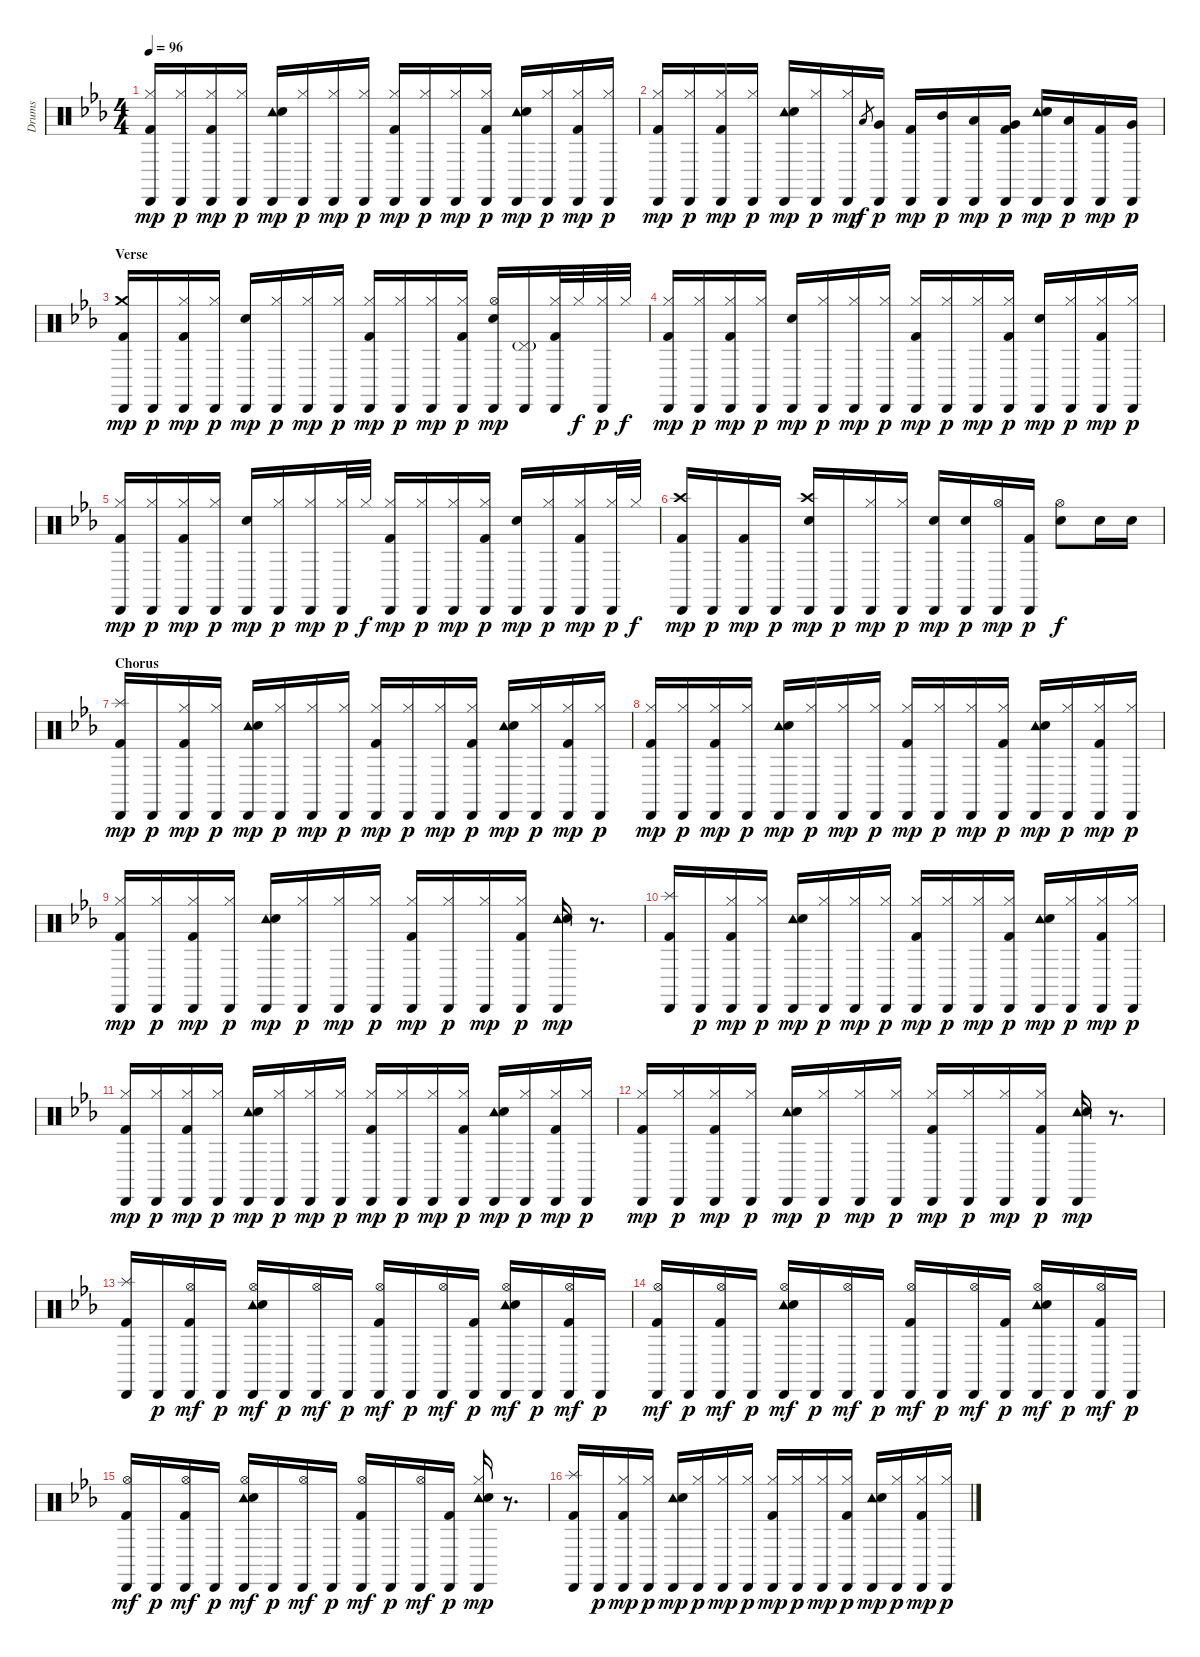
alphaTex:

\track ("Drums" "Drums") {instrument percussion}
\staff {score}
\articulation defaults
\ts (4 4)
\tempo 96
\clef neutral
\ks eb
("Kick (hit) 2" "Cabasa (hit)" "Hi-Hat (closed)").16{dy mp} ("Cabasa (hit)" "Hi-Hat (closed)").16{dy p} ("Kick (hit) 2" "Cabasa (hit)" "Hi-Hat (closed)").16{dy mp} ("Cabasa (hit)" "Hi-Hat (closed)").16{dy p} ("Tambourine (hit)" "Cabasa (hit)" "Snare (hit) 2").16{dy mp} ("Cabasa (hit)" "Hi-Hat (closed)").16{dy p} ("Cabasa (hit)" "Hi-Hat (closed)").16{dy mp} ("Cabasa (hit)" "Hi-Hat (closed)").16{dy p} ("Kick (hit) 2" "Cabasa (hit)" "Hi-Hat (closed)").16{dy mp} ("Cabasa (hit)" "Hi-Hat (closed)").16{dy p} ("Cabasa (hit)" "Hi-Hat (closed)").16{dy mp} ("Kick (hit) 2" "Cabasa (hit)" "Hi-Hat (closed)").16{dy p} ("Tambourine (hit)" "Cabasa (hit)" "Snare (hit) 2").16{dy mp} ("Cabasa (hit)" "Hi-Hat (closed)").16{dy p} ("Kick (hit) 2" "Cabasa (hit)" "Hi-Hat (closed)").16{dy mp} ("Cabasa (hit)" "Hi-Hat (closed)").16{dy p} |
("Kick (hit) 2" "Cabasa (hit)" "Hi-Hat (closed)").16{dy mp} ("Cabasa (hit)" "Hi-Hat (closed)").16{dy p} ("Kick (hit) 2" "Cabasa (hit)" "Hi-Hat (closed)").16{dy mp} ("Cabasa (hit)" "Hi-Hat (closed)").16{dy p} ("Tambourine (hit)" "Cabasa (hit)" "Snare (hit) 2").16{dy mp} ("Cabasa (hit)" "Hi-Hat (closed)").16{dy p} ("Cabasa (hit)" "Hi-Hat (closed)").16{dy mp} "Low Tom (hit)".8{gr dy f} ("Cabasa (hit)" "Very Low Tom (hit)").16{dy p} ("Kick (hit) 2" "Cabasa (hit)").16{dy mp} ("Cabasa (hit)" "Mid Tom (hit)").16{dy p} ("Cabasa (hit)" "Low Tom (hit)").16{dy mp} ("Kick (hit) 2" "Cabasa (hit)" "Very Low Tom (hit)").16{dy p} ("Tambourine (hit)" "Cabasa (hit)" "Snare (hit) 2").16{dy mp} ("Cabasa (hit)" "Low Tom (hit)").16{dy p} ("Kick (hit) 2" "Cabasa (hit)").16{dy mp} ("Cabasa (hit)" "Very Low Tom (hit)").16{dy p} |
\section ("" "Verse")
("Kick (hit) 2" "Crash medium (hit)" "Cabasa (hit)").16{dy mp} "Cabasa (hit)".16{dy p} ("Kick (hit) 2" "Cabasa (hit)" "Hi-Hat (closed)").16{dy mp} ("Cabasa (hit)" "Hi-Hat (closed)").16{dy p} ("Cabasa (hit)" "Snare (hit) 2").16{dy mp} ("Cabasa (hit)" "Hi-Hat (closed)").16{dy p} ("Cabasa (hit)" "Hi-Hat (closed)").16{dy mp} ("Cabasa (hit)" "Hi-Hat (closed)").16{dy p} ("Kick (hit) 2" "Cabasa (hit)" "Hi-Hat (closed)").16{dy mp} ("Cabasa (hit)" "Hi-Hat (closed)").16{dy p} ("Cabasa (hit)" "Hi-Hat (closed)").16{dy mp} ("Kick (hit) 2" "Cabasa (hit)" "Hi-Hat (closed)").16{dy p} ("Cabasa (hit)" "Snare (hit) 2" "Hi-Hat (open)").16{dy mp} ("Cabasa (hit)" "Pedal Hi-Hat (hit)"{g}).16 ("Kick (hit) 2" "Cabasa (hit)" "Hi-Hat (closed)").32 "Hi-Hat (closed)".32{dy f} ("Cabasa (hit)" "Hi-Hat (closed)").32{dy p} "Hi-Hat (closed)".32{dy f} |
("Kick (hit) 2" "Cabasa (hit)" "Hi-Hat (closed)").16{dy mp} ("Cabasa (hit)" "Hi-Hat (closed)").16{dy p} ("Kick (hit) 2" "Cabasa (hit)" "Hi-Hat (closed)").16{dy mp} ("Cabasa (hit)" "Hi-Hat (closed)").16{dy p} ("Cabasa (hit)" "Snare (hit) 2").16{dy mp} ("Cabasa (hit)" "Hi-Hat (closed)").16{dy p} ("Cabasa (hit)" "Hi-Hat (closed)").16{dy mp} ("Cabasa (hit)" "Hi-Hat (closed)").16{dy p} ("Kick (hit) 2" "Cabasa (hit)" "Hi-Hat (closed)").16{dy mp} ("Cabasa (hit)" "Hi-Hat (closed)").16{dy p} ("Cabasa (hit)" "Hi-Hat (closed)").16{dy mp} ("Kick (hit) 2" "Cabasa (hit)" "Hi-Hat (closed)").16{dy p} ("Cabasa (hit)" "Snare (hit) 2").16{dy mp} ("Cabasa (hit)" "Hi-Hat (closed)").16{dy p} ("Kick (hit) 2" "Cabasa (hit)" "Hi-Hat (closed)").16{dy mp} ("Cabasa (hit)" "Hi-Hat (closed)").16{dy p} |
("Kick (hit) 2" "Cabasa (hit)" "Hi-Hat (closed)").16{dy mp} ("Cabasa (hit)" "Hi-Hat (closed)").16{dy p} ("Kick (hit) 2" "Cabasa (hit)" "Hi-Hat (closed)").16{dy mp} ("Cabasa (hit)" "Hi-Hat (closed)").16{dy p} ("Cabasa (hit)" "Snare (hit) 2").16{dy mp} ("Cabasa (hit)" "Hi-Hat (closed)").16{dy p} ("Cabasa (hit)" "Hi-Hat (closed)").16{dy mp} ("Cabasa (hit)" "Hi-Hat (closed)").32{dy p} "Hi-Hat (closed)".32{dy f} ("Kick (hit) 2" "Cabasa (hit)" "Hi-Hat (closed)").16{dy mp} ("Cabasa (hit)" "Hi-Hat (closed)").16{dy p} ("Cabasa (hit)" "Hi-Hat (closed)").16{dy mp} ("Kick (hit) 2" "Cabasa (hit)" "Hi-Hat (closed)").16{dy p} ("Cabasa (hit)" "Snare (hit) 2").16{dy mp} ("Cabasa (hit)" "Hi-Hat (closed)").16{dy p} ("Kick (hit) 2" "Cabasa (hit)" "Hi-Hat (closed)").16{dy mp} ("Cabasa (hit)" "Hi-Hat (closed)").32{dy p} "Hi-Hat (closed)".32{dy f} |
("Kick (hit) 2" "Crash high (hit)" "Cabasa (hit)").16{dy mp} "Cabasa (hit)".16{dy p} ("Kick (hit) 2" "Cabasa (hit)").16{dy mp} "Cabasa (hit)".16{dy p} ("Crash high (hit)" "Cabasa (hit)" "Snare (hit) 2").16{dy mp} "Cabasa (hit)".16{dy p} ("Cabasa (hit)" "Hi-Hat (closed)").16{dy mp} ("Cabasa (hit)" "Hi-Hat (closed)").16{dy p} ("Cabasa (hit)" "Snare (hit) 2").16{dy mp} ("Cabasa (hit)" "Snare (hit) 2").16{dy p} ("Cabasa (hit)" "Hi-Hat (open)").16{dy mp} ("Kick (hit) 2" "Cabasa (hit)").16{dy p} ("Snare (hit) 2" "Hi-Hat (open)").8{dy f} "Snare (hit) 2".16 "Snare (hit) 2".16 |
\section ("" "Chorus")
("Kick (hit) 2" "Splash (hit)" "Cabasa (hit)").16{dy mp} "Cabasa (hit)".16{dy p} ("Kick (hit) 2" "Cabasa (hit)" "Hi-Hat (closed)").16{dy mp} ("Cabasa (hit)" "Hi-Hat (closed)").16{dy p} ("Tambourine (hit)" "Cabasa (hit)" "Snare (hit) 2").16{dy mp} ("Cabasa (hit)" "Hi-Hat (closed)").16{dy p} ("Cabasa (hit)" "Hi-Hat (closed)").16{dy mp} ("Cabasa (hit)" "Hi-Hat (closed)").16{dy p} ("Kick (hit) 2" "Cabasa (hit)" "Hi-Hat (closed)").16{dy mp} ("Cabasa (hit)" "Hi-Hat (closed)").16{dy p} ("Cabasa (hit)" "Hi-Hat (closed)").16{dy mp} ("Kick (hit) 2" "Cabasa (hit)" "Hi-Hat (closed)").16{dy p} ("Tambourine (hit)" "Cabasa (hit)" "Snare (hit) 2").16{dy mp} ("Cabasa (hit)" "Hi-Hat (closed)").16{dy p} ("Kick (hit) 2" "Cabasa (hit)" "Hi-Hat (closed)").16{dy mp} ("Cabasa (hit)" "Hi-Hat (closed)").16{dy p} |
("Kick (hit) 2" "Cabasa (hit)" "Hi-Hat (closed)").16{dy mp} ("Cabasa (hit)" "Hi-Hat (closed)").16{dy p} ("Kick (hit) 2" "Cabasa (hit)" "Hi-Hat (closed)").16{dy mp} ("Cabasa (hit)" "Hi-Hat (closed)").16{dy p} ("Tambourine (hit)" "Cabasa (hit)" "Snare (hit) 2").16{dy mp} ("Cabasa (hit)" "Hi-Hat (closed)").16{dy p} ("Cabasa (hit)" "Hi-Hat (closed)").16{dy mp} ("Cabasa (hit)" "Hi-Hat (closed)").16{dy p} ("Kick (hit) 2" "Cabasa (hit)" "Hi-Hat (closed)").16{dy mp} ("Cabasa (hit)" "Hi-Hat (closed)").16{dy p} ("Cabasa (hit)" "Hi-Hat (closed)").16{dy mp} ("Kick (hit) 2" "Cabasa (hit)" "Hi-Hat (closed)").16{dy p} ("Tambourine (hit)" "Cabasa (hit)" "Snare (hit) 2").16{dy mp} ("Cabasa (hit)" "Hi-Hat (closed)").16{dy p} ("Kick (hit) 2" "Cabasa (hit)" "Hi-Hat (closed)").16{dy mp} ("Cabasa (hit)" "Hi-Hat (closed)").16{dy p} |
("Kick (hit) 2" "Cabasa (hit)" "Hi-Hat (closed)").16{dy mp} ("Cabasa (hit)" "Hi-Hat (closed)").16{dy p} ("Kick (hit) 2" "Cabasa (hit)" "Hi-Hat (closed)").16{dy mp} ("Cabasa (hit)" "Hi-Hat (closed)").16{dy p} ("Tambourine (hit)" "Cabasa (hit)" "Snare (hit) 2").16{dy mp} ("Cabasa (hit)" "Hi-Hat (closed)").16{dy p} ("Cabasa (hit)" "Hi-Hat (closed)").16{dy mp} ("Cabasa (hit)" "Hi-Hat (closed)").16{dy p} ("Kick (hit) 2" "Cabasa (hit)" "Hi-Hat (closed)").16{dy mp} ("Cabasa (hit)" "Hi-Hat (closed)").16{dy p} ("Cabasa (hit)" "Hi-Hat (closed)").16{dy mp} ("Kick (hit) 2" "Cabasa (hit)" "Hi-Hat (closed)").16{dy p} ("Tambourine (hit)" "Cabasa (hit)" "Snare (hit) 2").16{dy mp} r.8{d} |
("Kick (hit) 2" "Splash (hit)" "Cabasa (hit)").16 "Cabasa (hit)".16{dy p} ("Kick (hit) 2" "Cabasa (hit)" "Hi-Hat (closed)").16{dy mp} ("Cabasa (hit)" "Hi-Hat (closed)").16{dy p} ("Tambourine (hit)" "Cabasa (hit)" "Snare (hit) 2").16{dy mp} ("Cabasa (hit)" "Hi-Hat (closed)").16{dy p} ("Cabasa (hit)" "Hi-Hat (closed)").16{dy mp} ("Cabasa (hit)" "Hi-Hat (closed)").16{dy p} ("Kick (hit) 2" "Cabasa (hit)" "Hi-Hat (closed)").16{dy mp} ("Cabasa (hit)" "Hi-Hat (closed)").16{dy p} ("Cabasa (hit)" "Hi-Hat (closed)").16{dy mp} ("Kick (hit) 2" "Cabasa (hit)" "Hi-Hat (closed)").16{dy p} ("Tambourine (hit)" "Cabasa (hit)" "Snare (hit) 2").16{dy mp} ("Cabasa (hit)" "Hi-Hat (closed)").16{dy p} ("Kick (hit) 2" "Cabasa (hit)" "Hi-Hat (closed)").16{dy mp} ("Cabasa (hit)" "Hi-Hat (closed)").16{dy p} |
("Kick (hit) 2" "Cabasa (hit)" "Hi-Hat (closed)").16{dy mp} ("Cabasa (hit)" "Hi-Hat (closed)").16{dy p} ("Kick (hit) 2" "Cabasa (hit)" "Hi-Hat (closed)").16{dy mp} ("Cabasa (hit)" "Hi-Hat (closed)").16{dy p} ("Tambourine (hit)" "Cabasa (hit)" "Snare (hit) 2").16{dy mp} ("Cabasa (hit)" "Hi-Hat (closed)").16{dy p} ("Cabasa (hit)" "Hi-Hat (closed)").16{dy mp} ("Cabasa (hit)" "Hi-Hat (closed)").16{dy p} ("Kick (hit) 2" "Cabasa (hit)" "Hi-Hat (closed)").16{dy mp} ("Cabasa (hit)" "Hi-Hat (closed)").16{dy p} ("Cabasa (hit)" "Hi-Hat (closed)").16{dy mp} ("Kick (hit) 2" "Cabasa (hit)" "Hi-Hat (closed)").16{dy p} ("Tambourine (hit)" "Cabasa (hit)" "Snare (hit) 2").16{dy mp} ("Cabasa (hit)" "Hi-Hat (closed)").16{dy p} ("Kick (hit) 2" "Cabasa (hit)" "Hi-Hat (closed)").16{dy mp} ("Cabasa (hit)" "Hi-Hat (closed)").16{dy p} |
("Kick (hit) 2" "Cabasa (hit)" "Hi-Hat (closed)").16{dy mp} ("Cabasa (hit)" "Hi-Hat (closed)").16{dy p} ("Kick (hit) 2" "Cabasa (hit)" "Hi-Hat (closed)").16{dy mp} ("Cabasa (hit)" "Hi-Hat (closed)").16{dy p} ("Tambourine (hit)" "Cabasa (hit)" "Snare (hit) 2").16{dy mp} ("Cabasa (hit)" "Hi-Hat (closed)").16{dy p} ("Cabasa (hit)" "Hi-Hat (closed)").16{dy mp} ("Cabasa (hit)" "Hi-Hat (closed)").16{dy p} ("Kick (hit) 2" "Cabasa (hit)" "Hi-Hat (closed)").16{dy mp} ("Cabasa (hit)" "Hi-Hat (closed)").16{dy p} ("Cabasa (hit)" "Hi-Hat (closed)").16{dy mp} ("Kick (hit) 2" "Cabasa (hit)" "Hi-Hat (closed)").16{dy p} ("Tambourine (hit)" "Cabasa (hit)" "Snare (hit) 2").16{dy mp} r.8{d} |
("Kick (hit) 2" "Splash (hit)" "Cabasa (hit)").16 "Cabasa (hit)".16{dy p} ("Kick (hit) 2" "Cabasa (hit)" "Hi-Hat (open)").16{dy mf} "Cabasa (hit)".16{dy p} ("Tambourine (hit)" "Cabasa (hit)" "Snare (hit) 2" "Hi-Hat (open)").16{dy mf} "Cabasa (hit)".16{dy p} ("Cabasa (hit)" "Hi-Hat (open)").16{dy mf} "Cabasa (hit)".16{dy p} ("Kick (hit) 2" "Cabasa (hit)" "Hi-Hat (open)").16{dy mf} "Cabasa (hit)".16{dy p} ("Cabasa (hit)" "Hi-Hat (open)").16{dy mf} ("Kick (hit) 2" "Cabasa (hit)").16{dy p} ("Tambourine (hit)" "Cabasa (hit)" "Snare (hit) 2" "Hi-Hat (open)").16{dy mf} "Cabasa (hit)".16{dy p} ("Kick (hit) 2" "Cabasa (hit)" "Hi-Hat (open)").16{dy mf} "Cabasa (hit)".16{dy p} |
("Kick (hit) 2" "Cabasa (hit)" "Hi-Hat (open)").16{dy mf} "Cabasa (hit)".16{dy p} ("Kick (hit) 2" "Cabasa (hit)" "Hi-Hat (open)").16{dy mf} "Cabasa (hit)".16{dy p} ("Tambourine (hit)" "Cabasa (hit)" "Snare (hit) 2" "Hi-Hat (open)").16{dy mf} "Cabasa (hit)".16{dy p} ("Cabasa (hit)" "Hi-Hat (open)").16{dy mf} "Cabasa (hit)".16{dy p} ("Kick (hit) 2" "Cabasa (hit)" "Hi-Hat (open)").16{dy mf} "Cabasa (hit)".16{dy p} ("Cabasa (hit)" "Hi-Hat (open)").16{dy mf} ("Kick (hit) 2" "Cabasa (hit)").16{dy p} ("Tambourine (hit)" "Cabasa (hit)" "Snare (hit) 2" "Hi-Hat (open)").16{dy mf} "Cabasa (hit)".16{dy p} ("Kick (hit) 2" "Cabasa (hit)" "Hi-Hat (open)").16{dy mf} "Cabasa (hit)".16{dy p} |
("Kick (hit) 2" "Cabasa (hit)" "Hi-Hat (open)").16{dy mf} "Cabasa (hit)".16{dy p} ("Kick (hit) 2" "Cabasa (hit)" "Hi-Hat (open)").16{dy mf} "Cabasa (hit)".16{dy p} ("Tambourine (hit)" "Cabasa (hit)" "Snare (hit) 2" "Hi-Hat (open)").16{dy mf} "Cabasa (hit)".16{dy p} ("Cabasa (hit)" "Hi-Hat (open)").16{dy mf} "Cabasa (hit)".16{dy p} ("Kick (hit) 2" "Cabasa (hit)" "Hi-Hat (open)").16{dy mf} "Cabasa (hit)".16{dy p} ("Cabasa (hit)" "Hi-Hat (open)").16{dy mf} ("Kick (hit) 2" "Cabasa (hit)").16{dy p} ("Tambourine (hit)" "Cabasa (hit)" "Snare (hit) 2" "Hi-Hat (closed)").16{dy mp} r.8{d} |
("Kick (hit) 2" "Splash (hit)" "Cabasa (hit)").16 "Cabasa (hit)".16{dy p} ("Kick (hit) 2" "Cabasa (hit)" "Hi-Hat (closed)").16{dy mp} ("Cabasa (hit)" "Hi-Hat (closed)").16{dy p} ("Tambourine (hit)" "Cabasa (hit)" "Snare (hit) 2").16{dy mp} ("Cabasa (hit)" "Hi-Hat (closed)").16{dy p} ("Cabasa (hit)" "Hi-Hat (closed)").16{dy mp} ("Cabasa (hit)" "Hi-Hat (closed)").16{dy p} ("Kick (hit) 2" "Cabasa (hit)" "Hi-Hat (closed)").16{dy mp} ("Cabasa (hit)" "Hi-Hat (closed)").16{dy p} ("Cabasa (hit)" "Hi-Hat (closed)").16{dy mp} ("Kick (hit) 2" "Cabasa (hit)" "Hi-Hat (closed)").16{dy p} ("Tambourine (hit)" "Cabasa (hit)" "Snare (hit) 2").16{dy mp} ("Cabasa (hit)" "Hi-Hat (closed)").16{dy p} ("Kick (hit) 2" "Cabasa (hit)" "Hi-Hat (closed)").16{dy mp} ("Cabasa (hit)" "Hi-Hat (closed)").16{dy p}
